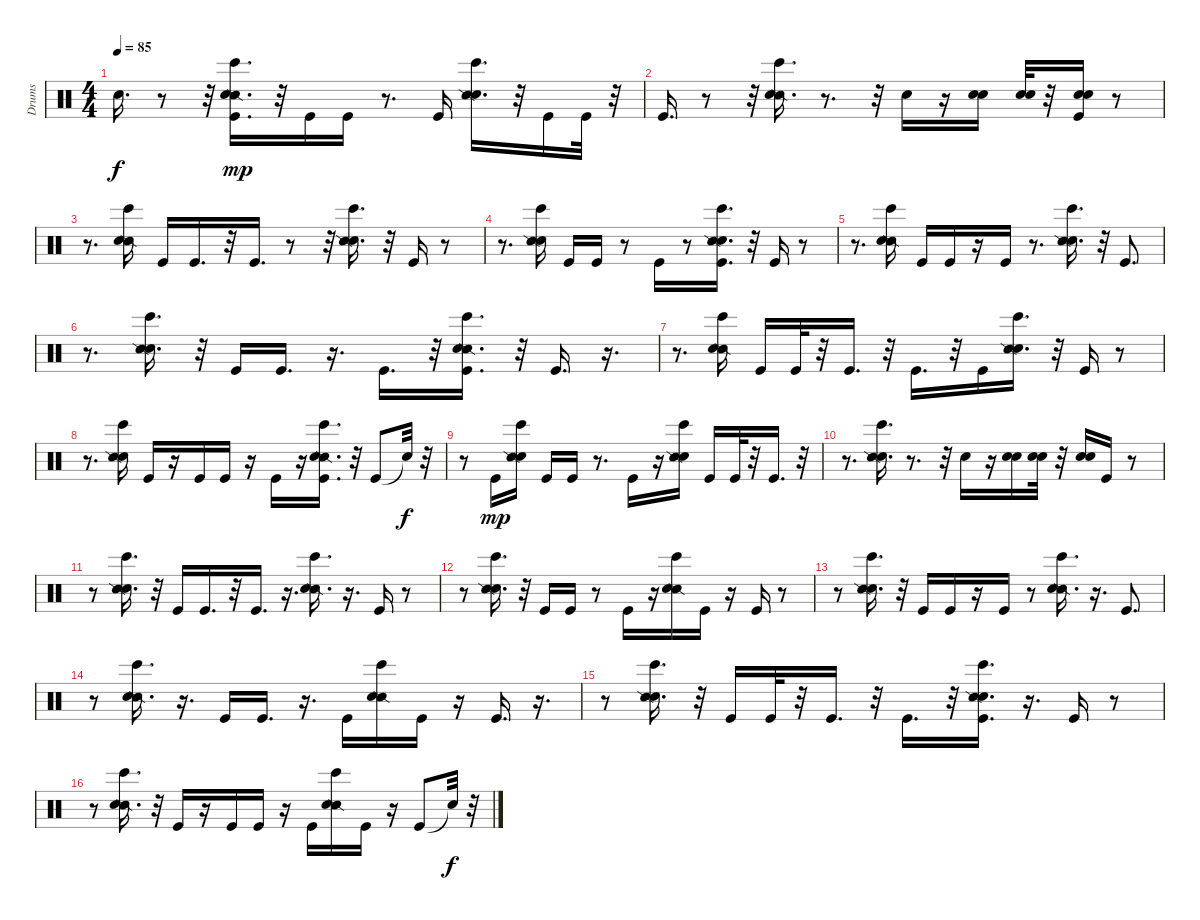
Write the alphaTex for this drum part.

\track ("Drums" "Drums") {instrument percussion}
\staff {score}
\articulation defaults
\ts (4 4)
\tempo 85
\clef neutral
\ks c "Snare (hit)"{t}.16{d dy f}
r.8 r.32 ("Snare (side stick) 2" "Kick (hit)" "Electric Snare (hit)" "Bongo High (hit)").16{d dy mp} r.32 "Kick (hit)".16 "Kick (hit)".16 r.8{d} "Kick (hit)".16 ("Electric Snare (hit)" "Bongo High (hit)" "Snare (side stick) 2").16{d} r.32 "Kick (hit)".16 "Kick (hit)".32 r.32 |
"Kick (hit)".16{d} r.8 r.32 ("Bongo High (hit)" "Snare (side stick) 2" "Electric Snare (hit)").16{d} r.8{d} r.32 "Electric Snare (hit)".16 r.16 ("Electric Snare (hit)" "Electric Snare (hit)").16 ("Electric Snare (hit)" "Electric Snare (hit)").32 r.32 ("Electric Snare (hit)" "Electric Snare (hit)" "Kick (hit)").16 r.8 |
r.8{d} ("Snare (side stick) 2" "Bongo High (hit)" "Electric Snare (hit)").16 "Kick (hit)".16 "Kick (hit)".16{d} r.32 "Kick (hit)".16{d} r.8 r.32 ("Electric Snare (hit)" "Bongo High (hit)" "Snare (side stick) 2").16{d} r.32 "Kick (hit)".16 r.8 |
r.8{d} ("Bongo High (hit)" "Electric Snare (hit)" "Snare (side stick) 2").16 "Kick (hit)".16 "Kick (hit)".16 r.8 "Kick (hit)".16 r.8 ("Electric Snare (hit)" "Snare (side stick) 2" "Kick (hit)" "Bongo High (hit)").16{d} r.32 "Kick (hit)".16 r.8 |
r.8{d} ("Snare (side stick) 2" "Electric Snare (hit)" "Bongo High (hit)").16 "Kick (hit)".16 "Kick (hit)".16 r.16 "Kick (hit)".16 r.8{d} ("Electric Snare (hit)" "Bongo High (hit)" "Snare (side stick) 2").16{d} r.32 "Kick (hit)".8{d} |
r.8{d} ("Electric Snare (hit)" "Snare (side stick) 2" "Bongo High (hit)").16{d} r.32 "Kick (hit)".16 "Kick (hit)".16{d} r.16{d} "Kick (hit)".16{d} r.32 ("Kick (hit)" "Bongo High (hit)" "Snare (side stick) 2" "Electric Snare (hit)").16{d} r.32 "Kick (hit)".16{d} r.16{d} |
r.8{d} ("Snare (side stick) 2" "Bongo High (hit)" "Electric Snare (hit)").16 "Kick (hit)".16 "Kick (hit)".32 r.32 "Kick (hit)".16{d} r.32 "Kick (hit)".16{d} r.32 "Kick (hit)".16 ("Electric Snare (hit)" "Bongo High (hit)" "Snare (side stick) 2").16{d} r.32 "Kick (hit)".16 r.8 |
r.8{d} ("Electric Snare (hit)" "Snare (side stick) 2" "Bongo High (hit)").16 "Kick (hit)".16 r.16 "Kick (hit)".16 "Kick (hit)".16 r.16 "Kick (hit)".16 r.16 ("Kick (hit)" "Snare (side stick) 2" "Electric Snare (hit)" "Bongo High (hit)").16{d} r.32 "Kick (hit)".8 "Snare (hit)"{t}.32{dy f} r.32 |
r.8 "Kick (hit)".16{dy mp} ("Electric Snare (hit)" "Bongo High (hit)" "Snare (side stick) 2").16 "Kick (hit)".16 "Kick (hit)".16 r.8{d} "Kick (hit)".16 r.16 ("Electric Snare (hit)" "Bongo High (hit)" "Snare (side stick) 2").16 "Kick (hit)".16 "Kick (hit)".32 r.32 "Kick (hit)".16{d} r.32 |
r.8{d} ("Bongo High (hit)" "Electric Snare (hit)" "Snare (side stick) 2").16{d} r.8{d} r.32 "Electric Snare (hit)".16 r.16 ("Electric Snare (hit)" "Electric Snare (hit)").16 ("Electric Snare (hit)" "Electric Snare (hit)").32 r.32 ("Electric Snare (hit)" "Electric Snare (hit)").16 "Kick (hit)".16 r.8 |
r.8 ("Bongo High (hit)" "Electric Snare (hit)" "Snare (side stick) 2").16{d} r.32 "Kick (hit)".16 "Kick (hit)".16{d} r.32 "Kick (hit)".16{d} r.16{d} ("Snare (side stick) 2" "Bongo High (hit)" "Electric Snare (hit)").16{d} r.16{d} "Kick (hit)".16 r.8 |
r.8 ("Electric Snare (hit)" "Snare (side stick) 2" "Bongo High (hit)").16{d} r.32 "Kick (hit)".16 "Kick (hit)".16 r.8 "Kick (hit)".16 r.16 ("Snare (side stick) 2" "Bongo High (hit)" "Electric Snare (hit)").16 "Kick (hit)".16 r.16 "Kick (hit)".16 r.8 |
r.8 ("Electric Snare (hit)" "Snare (side stick) 2" "Bongo High (hit)").16{d} r.32 "Kick (hit)".16 "Kick (hit)".16 r.16 "Kick (hit)".16 r.8 ("Snare (side stick) 2" "Electric Snare (hit)" "Bongo High (hit)").16{d} r.16{d} "Kick (hit)".8{d} |
r.8 ("Snare (side stick) 2" "Electric Snare (hit)" "Bongo High (hit)").16{d} r.16{d} "Kick (hit)".16 "Kick (hit)".16{d} r.16{d} "Kick (hit)".16 ("Snare (side stick) 2" "Electric Snare (hit)" "Bongo High (hit)").16 "Kick (hit)".16 r.16 "Kick (hit)".16{d} r.16{d} |
r.8 ("Electric Snare (hit)" "Snare (side stick) 2" "Bongo High (hit)").16{d} r.32 "Kick (hit)".16 "Kick (hit)".32 r.32 "Kick (hit)".16{d} r.32 "Kick (hit)".16{d} r.32 ("Electric Snare (hit)" "Kick (hit)" "Snare (side stick) 2" "Bongo High (hit)").16{d} r.16{d} "Kick (hit)".16 r.8 |
r.8 ("Bongo High (hit)" "Snare (side stick) 2" "Electric Snare (hit)").16{d} r.32 "Kick (hit)".16 r.16 "Kick (hit)".16 "Kick (hit)".16 r.16 "Kick (hit)".16 ("Snare (side stick) 2" "Bongo High (hit)" "Electric Snare (hit)").16 "Kick (hit)".16 r.16 "Kick (hit)".8 "Snare (hit)"{t}.32{dy f} r.32
